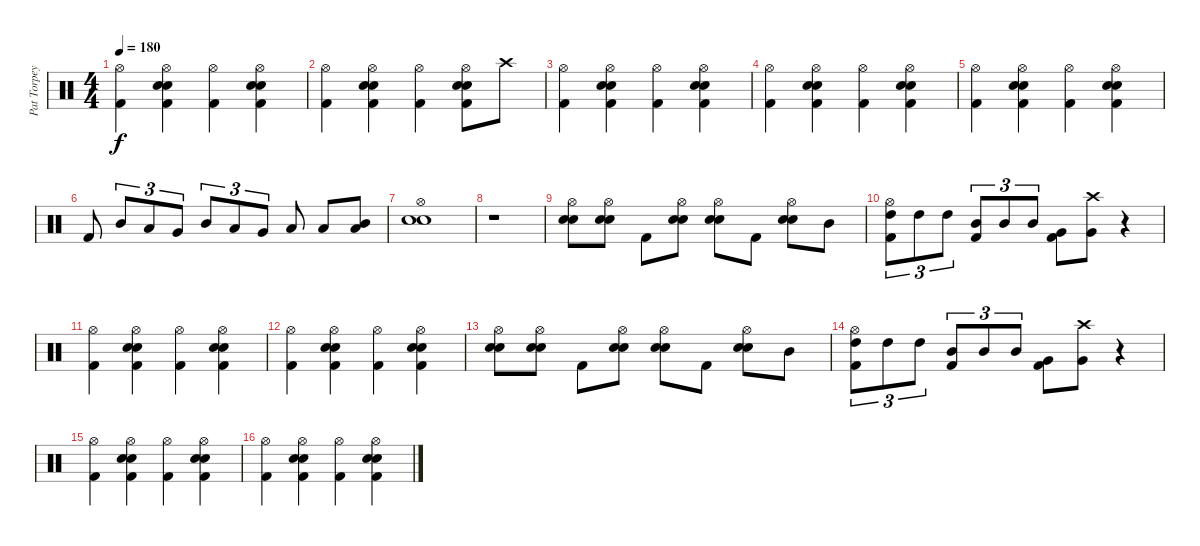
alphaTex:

\track ("Pat Torpey" "Pat Torpey") {instrument percussion}
\staff {score}
\articulation defaults
\ts (4 4)
\tempo 180
\clef neutral
\ks c
("Hi-Hat (open)" "Kick (hit) 2").4{dy f} ("Hi-Hat (open)" "Snare (hit) 2" "Electric Snare (hit)" "Kick (hit) 2").4 ("Hi-Hat (open)" "Kick (hit) 2").4 ("Hi-Hat (open)" "Snare (hit) 2" "Electric Snare (hit)" "Kick (hit) 2").4 |
("Hi-Hat (open)" "Kick (hit) 2").4 ("Hi-Hat (open)" "Snare (hit) 2" "Electric Snare (hit)" "Kick (hit) 2").4 ("Hi-Hat (open)" "Kick (hit) 2").4 ("Hi-Hat (open)" "Snare (hit) 2" "Electric Snare (hit)" "Kick (hit) 2").8 "Crash high (hit)".8 |
("Hi-Hat (open)" "Kick (hit) 2").4 ("Hi-Hat (open)" "Snare (hit) 2" "Electric Snare (hit)" "Kick (hit) 2").4 ("Hi-Hat (open)" "Kick (hit) 2").4 ("Hi-Hat (open)" "Snare (hit) 2" "Electric Snare (hit)" "Kick (hit) 2").4 |
("Hi-Hat (open)" "Kick (hit) 2").4 ("Hi-Hat (open)" "Snare (hit) 2" "Electric Snare (hit)" "Kick (hit) 2").4 ("Hi-Hat (open)" "Kick (hit) 2").4 ("Hi-Hat (open)" "Snare (hit) 2" "Electric Snare (hit)" "Kick (hit) 2").4 |
("Hi-Hat (open)" "Kick (hit) 2").4 ("Hi-Hat (open)" "Snare (hit) 2" "Electric Snare (hit)" "Kick (hit) 2").4 ("Hi-Hat (open)" "Kick (hit) 2").4 ("Hi-Hat (open)" "Snare (hit) 2" "Electric Snare (hit)" "Kick (hit) 2").4 |
"Kick (hit) 2".8 "Mid Tom (hit)".8{tu (3 2)} "Low Tom (hit)".8{tu (3 2)} "Very Low Tom (hit)".8{tu (3 2)} "Mid Tom (hit)".8{tu (3 2)} "Low Tom (hit)".8{tu (3 2)} "Very Low Tom (hit)".8{tu (3 2)} "Low Tom (hit)".8 "Low Tom (hit)".8 ("Mid Tom (hit)" "Low Tom (hit)").8 |
("Snare (hit) 2" "Electric Snare (hit)" "Hi-Hat (open)").1 |
r.1 |
("Snare (hit) 2" "Electric Snare (hit)" "Hi-Hat (open)").8 ("Snare (hit) 2" "Electric Snare (hit)" "Hi-Hat (open)").8 "Kick (hit) 2".8 ("Snare (hit) 2" "Electric Snare (hit)" "Hi-Hat (open)").8 ("Snare (hit) 2" "Electric Snare (hit)" "Hi-Hat (open)").8 "Kick (hit) 2".8 ("Snare (hit) 2" "Electric Snare (hit)" "Hi-Hat (open)").8 "Mid Tom (hit)".8 |
("High Tom (hit)" "Hi-Hat (open)" "Kick (hit) 2").8{tu (3 2)} "High Tom (hit)".8{tu (3 2)} "High Tom (hit)".8{tu (3 2)} ("Mid Tom (hit)" "Kick (hit) 2").8{tu (3 2)} "Mid Tom (hit)".8{tu (3 2)} "Mid Tom (hit)".8{tu (3 2)} ("Very Low Tom (hit)" "Kick (hit) 2").8 ("Crash high (hit)" "Very Low Tom (hit)").8 r.4 |
("Hi-Hat (open)" "Kick (hit) 2").4 ("Hi-Hat (open)" "Snare (hit) 2" "Electric Snare (hit)" "Kick (hit) 2").4 ("Hi-Hat (open)" "Kick (hit) 2").4 ("Hi-Hat (open)" "Snare (hit) 2" "Electric Snare (hit)" "Kick (hit) 2").4 |
("Hi-Hat (open)" "Kick (hit) 2").4 ("Hi-Hat (open)" "Snare (hit) 2" "Electric Snare (hit)" "Kick (hit) 2").4 ("Hi-Hat (open)" "Kick (hit) 2").4 ("Hi-Hat (open)" "Snare (hit) 2" "Electric Snare (hit)" "Kick (hit) 2").4 |
("Snare (hit) 2" "Electric Snare (hit)" "Hi-Hat (open)").8 ("Snare (hit) 2" "Electric Snare (hit)" "Hi-Hat (open)").8 "Kick (hit) 2".8 ("Snare (hit) 2" "Electric Snare (hit)" "Hi-Hat (open)").8 ("Snare (hit) 2" "Electric Snare (hit)" "Hi-Hat (open)").8 "Kick (hit) 2".8 ("Snare (hit) 2" "Electric Snare (hit)" "Hi-Hat (open)").8 "Mid Tom (hit)".8 |
("High Tom (hit)" "Hi-Hat (open)" "Kick (hit) 2").8{tu (3 2)} "High Tom (hit)".8{tu (3 2)} "High Tom (hit)".8{tu (3 2)} ("Mid Tom (hit)" "Kick (hit) 2").8{tu (3 2)} "Mid Tom (hit)".8{tu (3 2)} "Mid Tom (hit)".8{tu (3 2)} ("Very Low Tom (hit)" "Kick (hit) 2").8 ("Crash high (hit)" "Very Low Tom (hit)").8 r.4 |
("Hi-Hat (open)" "Kick (hit) 2").4 ("Hi-Hat (open)" "Snare (hit) 2" "Electric Snare (hit)" "Kick (hit) 2").4 ("Hi-Hat (open)" "Kick (hit) 2").4 ("Hi-Hat (open)" "Snare (hit) 2" "Electric Snare (hit)" "Kick (hit) 2").4 |
("Hi-Hat (open)" "Kick (hit) 2").4 ("Hi-Hat (open)" "Snare (hit) 2" "Electric Snare (hit)" "Kick (hit) 2").4 ("Hi-Hat (open)" "Kick (hit) 2").4 ("Hi-Hat (open)" "Snare (hit) 2" "Electric Snare (hit)" "Kick (hit) 2").4
